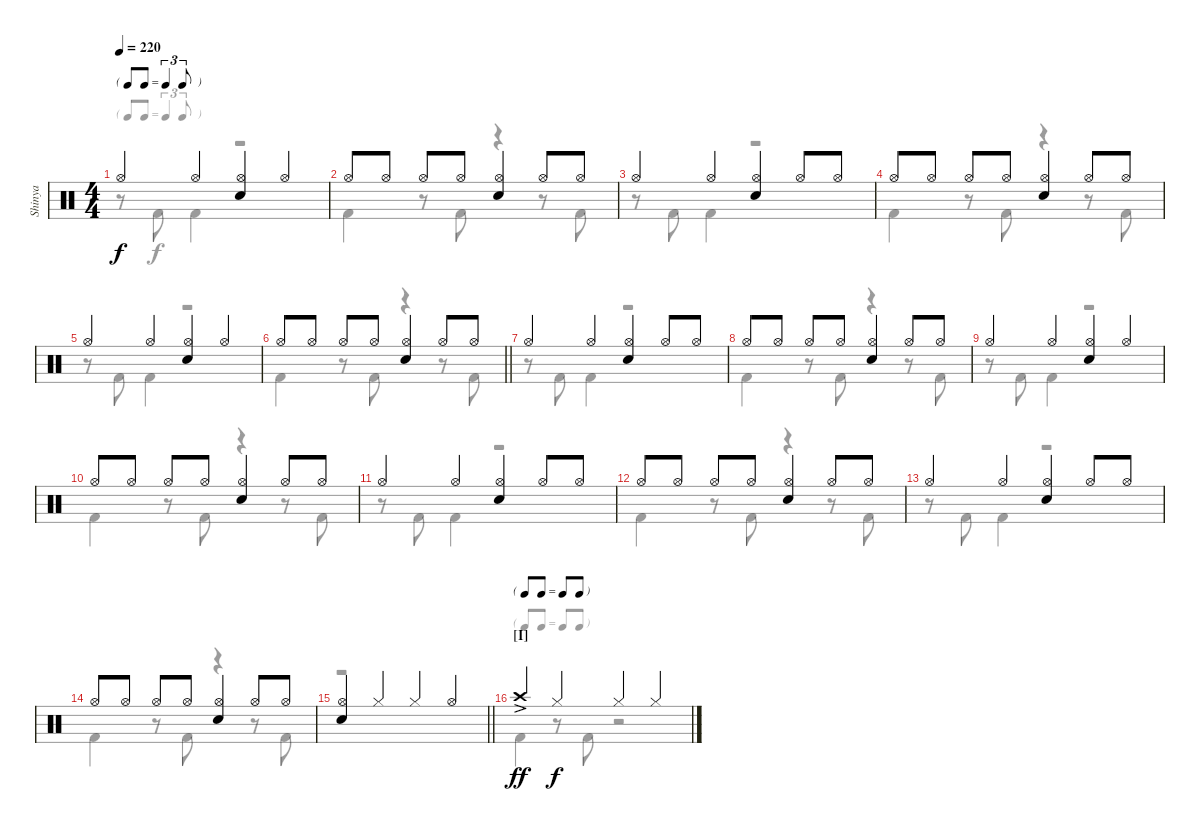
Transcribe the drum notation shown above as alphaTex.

\track ("Shinya" "Shinya") {instrument percussion}
\staff {score}
\articulation defaults
\voice
\ts (4 4)
\tf triplet8th
\tempo 220
\clef neutral
\ks c "Hi-Hat (open)".4{dy f} "Hi-Hat (open)".4
("Hi-Hat (open)" "Snare (hit) 2").4 "Hi-Hat (open)".4 |
"Hi-Hat (open)".8 "Hi-Hat (open)".8 "Hi-Hat (open)".8 "Hi-Hat (open)".8 ("Hi-Hat (open)" "Snare (hit) 2").4 "Hi-Hat (open)".8 "Hi-Hat (open)".8 |
"Hi-Hat (open)".4 "Hi-Hat (open)".4 ("Hi-Hat (open)" "Snare (hit) 2").4 "Hi-Hat (open)".8 "Hi-Hat (open)".8 |
"Hi-Hat (open)".8 "Hi-Hat (open)".8 "Hi-Hat (open)".8 "Hi-Hat (open)".8 ("Hi-Hat (open)" "Snare (hit) 2").4 "Hi-Hat (open)".8 "Hi-Hat (open)".8 |
"Hi-Hat (open)".4 "Hi-Hat (open)".4 ("Hi-Hat (open)" "Snare (hit) 2").4 "Hi-Hat (open)".4 |
\barLineRight lightlight "Hi-Hat (open)".8 "Hi-Hat (open)".8 "Hi-Hat (open)".8 "Hi-Hat (open)".8
("Hi-Hat (open)" "Snare (hit) 2").4 "Hi-Hat (open)".8 "Hi-Hat (open)".8 |
"Hi-Hat (open)".4 "Hi-Hat (open)".4 ("Hi-Hat (open)" "Snare (hit) 2").4 "Hi-Hat (open)".8 "Hi-Hat (open)".8 |
"Hi-Hat (open)".8 "Hi-Hat (open)".8 "Hi-Hat (open)".8 "Hi-Hat (open)".8 ("Hi-Hat (open)" "Snare (hit) 2").4 "Hi-Hat (open)".8 "Hi-Hat (open)".8 |
"Hi-Hat (open)".4 "Hi-Hat (open)".4 ("Hi-Hat (open)" "Snare (hit) 2").4 "Hi-Hat (open)".4 |
"Hi-Hat (open)".8 "Hi-Hat (open)".8 "Hi-Hat (open)".8 "Hi-Hat (open)".8 ("Hi-Hat (open)" "Snare (hit) 2").4 "Hi-Hat (open)".8 "Hi-Hat (open)".8 |
"Hi-Hat (open)".4 "Hi-Hat (open)".4 ("Hi-Hat (open)" "Snare (hit) 2").4 "Hi-Hat (open)".8 "Hi-Hat (open)".8 |
"Hi-Hat (open)".8 "Hi-Hat (open)".8 "Hi-Hat (open)".8 "Hi-Hat (open)".8 ("Hi-Hat (open)" "Snare (hit) 2").4 "Hi-Hat (open)".8 "Hi-Hat (open)".8 |
"Hi-Hat (open)".4 "Hi-Hat (open)".4 ("Hi-Hat (open)" "Snare (hit) 2").4 "Hi-Hat (open)".8 "Hi-Hat (open)".8 |
"Hi-Hat (open)".8 "Hi-Hat (open)".8 "Hi-Hat (open)".8 "Hi-Hat (open)".8 ("Hi-Hat (open)" "Snare (hit) 2").4 "Hi-Hat (open)".8 "Hi-Hat (open)".8 |
\barLineRight lightlight
("Hi-Hat (open)" "Snare (hit) 2").4 "Hi-Hat (closed)".4 "Hi-Hat (closed)".4 "Hi-Hat (open)".4 |
\tf none
\section ("" "[I]")
"Crash high (hit)"{ac}.4{dy ff} "Hi-Hat (closed)".4{dy f} "Hi-Hat (closed)".4 "Hi-Hat (closed)".4
\voice
\clef neutral
\ottava regular
\simile none
\ks c
r.8{dy f} "Kick (hit) 2".8 "Kick (hit) 2".4 r.2 |
"Kick (hit) 2".4 r.8 "Kick (hit) 2".8 r.4 r.8 "Kick (hit) 2".8 |
r.8 "Kick (hit) 2".8 "Kick (hit) 2".4 r.2 |
"Kick (hit) 2".4 r.8 "Kick (hit) 2".8 r.4 r.8 "Kick (hit) 2".8 |
r.8 "Kick (hit) 2".8 "Kick (hit) 2".4 r.2 |
\barLineRight lightlight "Kick (hit) 2".4
r.8 "Kick (hit) 2".8 r.4 r.8 "Kick (hit) 2".8 |
r.8 "Kick (hit) 2".8 "Kick (hit) 2".4 r.2 |
"Kick (hit) 2".4 r.8 "Kick (hit) 2".8 r.4 r.8 "Kick (hit) 2".8 |
r.8 "Kick (hit) 2".8 "Kick (hit) 2".4 r.2 |
"Kick (hit) 2".4 r.8 "Kick (hit) 2".8 r.4 r.8 "Kick (hit) 2".8 |
r.8 "Kick (hit) 2".8 "Kick (hit) 2".4 r.2 |
"Kick (hit) 2".4 r.8 "Kick (hit) 2".8 r.4 r.8 "Kick (hit) 2".8 |
r.8 "Kick (hit) 2".8 "Kick (hit) 2".4 r.2 |
"Kick (hit) 2".4 r.8 "Kick (hit) 2".8 r.4 r.8 "Kick (hit) 2".8 |
\barLineRight lightlight
r.1 |
"Kick (hit) 2".4 r.8 "Kick (hit) 2".8 r.2
